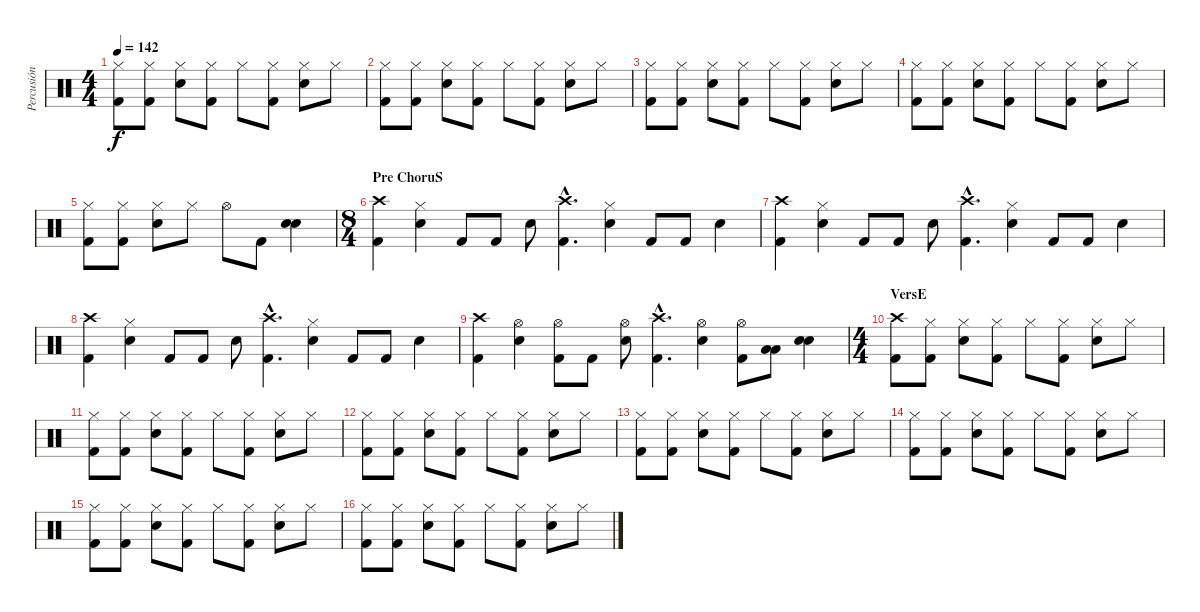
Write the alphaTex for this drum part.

\track ("Percusión  " "Percusión ") {instrument percussion}
\staff {score}
\articulation defaults
\ts (4 4)
\tempo 142
\clef neutral
\ks c
("Hi-Hat (closed)" "Kick (hit) 2").8{dy f} ("Hi-Hat (closed)" "Kick (hit) 2").8 ("Electric Snare (hit)" "Hi-Hat (closed)").8 ("Hi-Hat (closed)" "Kick (hit) 2").8 "Hi-Hat (closed)".8 ("Hi-Hat (closed)" "Kick (hit) 2").8 ("Electric Snare (hit)" "Hi-Hat (closed)").8 "Hi-Hat (closed)".8 |
("Hi-Hat (closed)" "Kick (hit) 2").8 ("Hi-Hat (closed)" "Kick (hit) 2").8 ("Electric Snare (hit)" "Hi-Hat (closed)").8 ("Hi-Hat (closed)" "Kick (hit) 2").8 "Hi-Hat (closed)".8 ("Hi-Hat (closed)" "Kick (hit) 2").8 ("Electric Snare (hit)" "Hi-Hat (closed)").8 "Hi-Hat (closed)".8 |
("Hi-Hat (closed)" "Kick (hit) 2").8 ("Hi-Hat (closed)" "Kick (hit) 2").8 ("Electric Snare (hit)" "Hi-Hat (closed)").8 ("Hi-Hat (closed)" "Kick (hit) 2").8 "Hi-Hat (closed)".8 ("Hi-Hat (closed)" "Kick (hit) 2").8 ("Electric Snare (hit)" "Hi-Hat (closed)").8 "Hi-Hat (closed)".8 |
("Hi-Hat (closed)" "Kick (hit) 2").8 ("Hi-Hat (closed)" "Kick (hit) 2").8 ("Electric Snare (hit)" "Hi-Hat (closed)").8 ("Hi-Hat (closed)" "Kick (hit) 2").8 "Hi-Hat (closed)".8 ("Hi-Hat (closed)" "Kick (hit) 2").8 ("Electric Snare (hit)" "Hi-Hat (closed)").8 "Hi-Hat (closed)".8 |
("Hi-Hat (closed)" "Kick (hit) 2").8 ("Hi-Hat (closed)" "Kick (hit) 2").8 ("Electric Snare (hit)" "Hi-Hat (closed)").8 "Hi-Hat (closed)".8 "Hi-Hat (open)".8 "Kick (hit) 2".8 ("Electric Snare (hit)" "Electric Snare (hit)").4 |
\ts (8 4)
\section ("" "Pre ChoruS")
("Crash high (hit)" "Kick (hit) 2").4 ("Hi-Hat (closed)" "Electric Snare (hit)").4 "Kick (hit) 2".8 "Kick (hit) 2".8 "Electric Snare (hit)".8 ("Crash high (hit)"{hac} "Kick (hit) 2"{hac}).4{d} ("Hi-Hat (closed)" "Electric Snare (hit)").4 "Kick (hit) 2".8 "Kick (hit) 2".8 "Electric Snare (hit)".4 |
("Crash high (hit)" "Kick (hit) 2").4 ("Hi-Hat (closed)" "Electric Snare (hit)").4 "Kick (hit) 2".8 "Kick (hit) 2".8 "Electric Snare (hit)".8 ("Crash high (hit)"{hac} "Kick (hit) 2"{hac}).4{d} ("Hi-Hat (closed)" "Electric Snare (hit)").4 "Kick (hit) 2".8 "Kick (hit) 2".8 "Electric Snare (hit)".4 |
("Crash high (hit)" "Kick (hit) 2").4 ("Hi-Hat (closed)" "Electric Snare (hit)").4 "Kick (hit) 2".8 "Kick (hit) 2".8 "Electric Snare (hit)".8 ("Crash high (hit)"{hac} "Kick (hit) 2"{hac}).4{d} ("Hi-Hat (closed)" "Electric Snare (hit)").4 "Kick (hit) 2".8 "Kick (hit) 2".8 "Electric Snare (hit)".4 |
("Crash high (hit)" "Kick (hit) 2").4 ("Hi-Hat (open)" "Electric Snare (hit)").4 ("Hi-Hat (open)" "Kick (hit) 2").8 "Kick (hit) 2".8 ("Hi-Hat (open)" "Electric Snare (hit)").8 ("Crash high (hit)"{hac} "Kick (hit) 2"{hac}).4{d} ("Hi-Hat (open)" "Electric Snare (hit)").4 ("Hi-Hat (open)" "Kick (hit) 2").8 ("Low Tom (hit)" "Low Tom (hit)").8 ("Electric Snare (hit)" "Electric Snare (hit)").4 |
\ts (4 4)
\section ("" "VersE")
("Crash high (hit)" "Kick (hit) 2").8 ("Hi-Hat (closed)" "Kick (hit) 2").8 ("Electric Snare (hit)" "Hi-Hat (closed)").8 ("Hi-Hat (closed)" "Kick (hit) 2").8 "Hi-Hat (closed)".8 ("Hi-Hat (closed)" "Kick (hit) 2").8 ("Electric Snare (hit)" "Hi-Hat (closed)").8 "Hi-Hat (closed)".8 |
("Hi-Hat (closed)" "Kick (hit) 2").8 ("Hi-Hat (closed)" "Kick (hit) 2").8 ("Electric Snare (hit)" "Hi-Hat (closed)").8 ("Hi-Hat (closed)" "Kick (hit) 2").8 "Hi-Hat (closed)".8 ("Hi-Hat (closed)" "Kick (hit) 2").8 ("Electric Snare (hit)" "Hi-Hat (closed)").8 "Hi-Hat (closed)".8 |
("Hi-Hat (closed)" "Kick (hit) 2").8 ("Hi-Hat (closed)" "Kick (hit) 2").8 ("Electric Snare (hit)" "Hi-Hat (closed)").8 ("Hi-Hat (closed)" "Kick (hit) 2").8 "Hi-Hat (closed)".8 ("Hi-Hat (closed)" "Kick (hit) 2").8 ("Electric Snare (hit)" "Hi-Hat (closed)").8 "Hi-Hat (closed)".8 |
("Hi-Hat (closed)" "Kick (hit) 2").8 ("Hi-Hat (closed)" "Kick (hit) 2").8 ("Electric Snare (hit)" "Hi-Hat (closed)").8 ("Hi-Hat (closed)" "Kick (hit) 2").8 "Hi-Hat (closed)".8 ("Hi-Hat (closed)" "Kick (hit) 2").8 ("Electric Snare (hit)" "Hi-Hat (closed)").8 "Hi-Hat (closed)".8 |
("Hi-Hat (closed)" "Kick (hit) 2").8 ("Hi-Hat (closed)" "Kick (hit) 2").8 ("Electric Snare (hit)" "Hi-Hat (closed)").8 ("Hi-Hat (closed)" "Kick (hit) 2").8 "Hi-Hat (closed)".8 ("Hi-Hat (closed)" "Kick (hit) 2").8 ("Electric Snare (hit)" "Hi-Hat (closed)").8 "Hi-Hat (closed)".8 |
("Hi-Hat (closed)" "Kick (hit) 2").8 ("Hi-Hat (closed)" "Kick (hit) 2").8 ("Electric Snare (hit)" "Hi-Hat (closed)").8 ("Hi-Hat (closed)" "Kick (hit) 2").8 "Hi-Hat (closed)".8 ("Hi-Hat (closed)" "Kick (hit) 2").8 ("Electric Snare (hit)" "Hi-Hat (closed)").8 "Hi-Hat (closed)".8 |
("Hi-Hat (closed)" "Kick (hit) 2").8 ("Hi-Hat (closed)" "Kick (hit) 2").8 ("Electric Snare (hit)" "Hi-Hat (closed)").8 ("Hi-Hat (closed)" "Kick (hit) 2").8 "Hi-Hat (closed)".8 ("Hi-Hat (closed)" "Kick (hit) 2").8 ("Electric Snare (hit)" "Hi-Hat (closed)").8 "Hi-Hat (closed)".8
